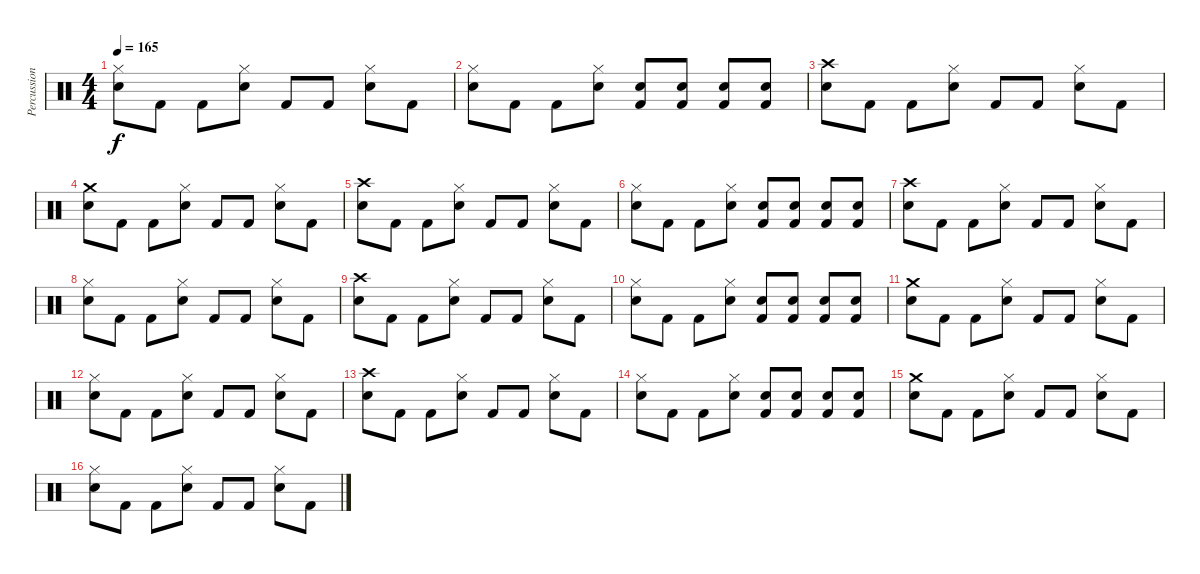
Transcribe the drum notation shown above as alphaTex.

\track ("Percussion" "Percussion") {instrument percussion}
\staff {score}
\articulation defaults
\ts (4 4)
\tempo 165
\clef neutral
\ks c
("Hi-Hat (closed)" "Electric Snare (hit)").8{dy f} "Kick (hit) 2".8 "Kick (hit) 2".8 ("Hi-Hat (closed)" "Electric Snare (hit)").8 "Kick (hit) 2".8 "Kick (hit) 2".8 ("Hi-Hat (closed)" "Electric Snare (hit)").8 "Kick (hit) 2".8 |
("Hi-Hat (closed)" "Electric Snare (hit)").8 "Kick (hit) 2".8 "Kick (hit) 2".8 ("Hi-Hat (closed)" "Electric Snare (hit)").8 ("Electric Snare (hit)" "Kick (hit) 2").8 ("Electric Snare (hit)" "Kick (hit) 2").8 ("Electric Snare (hit)" "Kick (hit) 2").8 ("Electric Snare (hit)" "Kick (hit) 2").8 |
("Crash high (hit)" "Electric Snare (hit)").8 "Kick (hit) 2".8 "Kick (hit) 2".8 ("Hi-Hat (closed)" "Electric Snare (hit)").8 "Kick (hit) 2".8 "Kick (hit) 2".8 ("Hi-Hat (closed)" "Electric Snare (hit)").8 "Kick (hit) 2".8 |
("Crash medium (hit)" "Electric Snare (hit)").8 "Kick (hit) 2".8 "Kick (hit) 2".8 ("Hi-Hat (closed)" "Electric Snare (hit)").8 "Kick (hit) 2".8 "Kick (hit) 2".8 ("Hi-Hat (closed)" "Electric Snare (hit)").8 "Kick (hit) 2".8 |
("Crash high (hit)" "Electric Snare (hit)").8 "Kick (hit) 2".8 "Kick (hit) 2".8 ("Hi-Hat (closed)" "Electric Snare (hit)").8 "Kick (hit) 2".8 "Kick (hit) 2".8 ("Hi-Hat (closed)" "Electric Snare (hit)").8 "Kick (hit) 2".8 |
("Hi-Hat (closed)" "Electric Snare (hit)").8 "Kick (hit) 2".8 "Kick (hit) 2".8 ("Hi-Hat (closed)" "Electric Snare (hit)").8 ("Electric Snare (hit)" "Kick (hit) 2").8 ("Electric Snare (hit)" "Kick (hit) 2").8 ("Electric Snare (hit)" "Kick (hit) 2").8 ("Electric Snare (hit)" "Kick (hit) 2").8 |
("Crash high (hit)" "Electric Snare (hit)").8 "Kick (hit) 2".8 "Kick (hit) 2".8 ("Hi-Hat (closed)" "Electric Snare (hit)").8 "Kick (hit) 2".8 "Kick (hit) 2".8 ("Hi-Hat (closed)" "Electric Snare (hit)").8 "Kick (hit) 2".8 |
("Hi-Hat (closed)" "Electric Snare (hit)").8 "Kick (hit) 2".8 "Kick (hit) 2".8 ("Hi-Hat (closed)" "Electric Snare (hit)").8 "Kick (hit) 2".8 "Kick (hit) 2".8 ("Hi-Hat (closed)" "Electric Snare (hit)").8 "Kick (hit) 2".8 |
("Crash high (hit)" "Electric Snare (hit)").8 "Kick (hit) 2".8 "Kick (hit) 2".8 ("Hi-Hat (closed)" "Electric Snare (hit)").8 "Kick (hit) 2".8 "Kick (hit) 2".8 ("Hi-Hat (closed)" "Electric Snare (hit)").8 "Kick (hit) 2".8 |
("Hi-Hat (closed)" "Electric Snare (hit)").8 "Kick (hit) 2".8 "Kick (hit) 2".8 ("Hi-Hat (closed)" "Electric Snare (hit)").8 ("Electric Snare (hit)" "Kick (hit) 2").8 ("Electric Snare (hit)" "Kick (hit) 2").8 ("Electric Snare (hit)" "Kick (hit) 2").8 ("Electric Snare (hit)" "Kick (hit) 2").8 |
("Crash medium (hit)" "Electric Snare (hit)").8 "Kick (hit) 2".8 "Kick (hit) 2".8 ("Hi-Hat (closed)" "Electric Snare (hit)").8 "Kick (hit) 2".8 "Kick (hit) 2".8 ("Hi-Hat (closed)" "Electric Snare (hit)").8 "Kick (hit) 2".8 |
("Hi-Hat (closed)" "Electric Snare (hit)").8 "Kick (hit) 2".8 "Kick (hit) 2".8 ("Hi-Hat (closed)" "Electric Snare (hit)").8 "Kick (hit) 2".8 "Kick (hit) 2".8 ("Hi-Hat (closed)" "Electric Snare (hit)").8 "Kick (hit) 2".8 |
("Crash high (hit)" "Electric Snare (hit)").8 "Kick (hit) 2".8 "Kick (hit) 2".8 ("Hi-Hat (closed)" "Electric Snare (hit)").8 "Kick (hit) 2".8 "Kick (hit) 2".8 ("Hi-Hat (closed)" "Electric Snare (hit)").8 "Kick (hit) 2".8 |
("Hi-Hat (closed)" "Electric Snare (hit)").8 "Kick (hit) 2".8 "Kick (hit) 2".8 ("Hi-Hat (closed)" "Electric Snare (hit)").8 ("Electric Snare (hit)" "Kick (hit) 2").8 ("Electric Snare (hit)" "Kick (hit) 2").8 ("Electric Snare (hit)" "Kick (hit) 2").8 ("Electric Snare (hit)" "Kick (hit) 2").8 |
("Crash medium (hit)" "Electric Snare (hit)").8 "Kick (hit) 2".8 "Kick (hit) 2".8 ("Hi-Hat (closed)" "Electric Snare (hit)").8 "Kick (hit) 2".8 "Kick (hit) 2".8 ("Hi-Hat (closed)" "Electric Snare (hit)").8 "Kick (hit) 2".8 |
("Hi-Hat (closed)" "Electric Snare (hit)").8 "Kick (hit) 2".8 "Kick (hit) 2".8 ("Hi-Hat (closed)" "Electric Snare (hit)").8 "Kick (hit) 2".8 "Kick (hit) 2".8 ("Hi-Hat (closed)" "Electric Snare (hit)").8 "Kick (hit) 2".8
